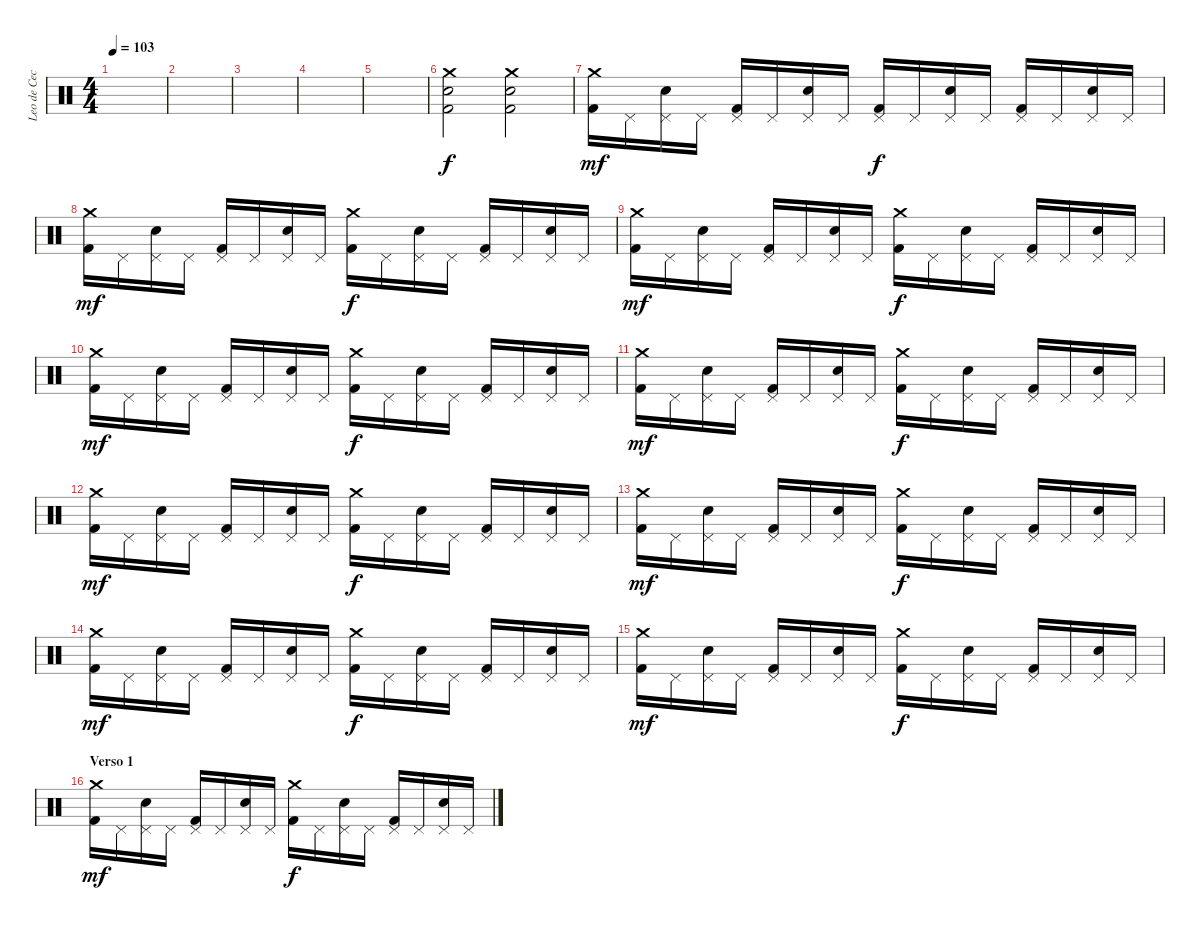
\track ("Leo de Cecco" "Leo de Cec") {instrument percussion}
\staff {score}
\articulation defaults
\ts (4 4)
\tempo 103
\clef neutral
\ks c
|
|
|
|
|
("Crash medium (hit)" "Kick (hit) 2" "Snare (hit) 2").2 ("Crash medium (hit)" "Kick (hit) 2" "Snare (hit) 2").2 |
("Crash medium (hit)" "Kick (hit) 2").16{dy mf} "Pedal Hi-Hat (hit)".16 ("Pedal Hi-Hat (hit)" "Snare (hit) 2").16 "Pedal Hi-Hat (hit)".16 ("Pedal Hi-Hat (hit)" "Kick (hit) 2").16 "Pedal Hi-Hat (hit)".16 ("Pedal Hi-Hat (hit)" "Snare (hit) 2").16 "Pedal Hi-Hat (hit)".16 ("Pedal Hi-Hat (hit)" "Kick (hit) 2").16{dy f} "Pedal Hi-Hat (hit)".16 ("Pedal Hi-Hat (hit)" "Snare (hit) 2").16 "Pedal Hi-Hat (hit)".16 ("Pedal Hi-Hat (hit)" "Kick (hit) 2").16 "Pedal Hi-Hat (hit)".16 ("Pedal Hi-Hat (hit)" "Snare (hit) 2").16 "Pedal Hi-Hat (hit)".16 |
("Crash medium (hit)" "Kick (hit) 2").16{dy mf} "Pedal Hi-Hat (hit)".16 ("Pedal Hi-Hat (hit)" "Snare (hit) 2").16 "Pedal Hi-Hat (hit)".16 ("Pedal Hi-Hat (hit)" "Kick (hit) 2").16 "Pedal Hi-Hat (hit)".16 ("Pedal Hi-Hat (hit)" "Snare (hit) 2").16 "Pedal Hi-Hat (hit)".16 ("Crash medium (hit)" "Kick (hit) 2").16{dy f} "Pedal Hi-Hat (hit)".16 ("Pedal Hi-Hat (hit)" "Snare (hit) 2").16 "Pedal Hi-Hat (hit)".16 ("Pedal Hi-Hat (hit)" "Kick (hit) 2").16 "Pedal Hi-Hat (hit)".16 ("Pedal Hi-Hat (hit)" "Snare (hit) 2").16 "Pedal Hi-Hat (hit)".16 |
("Crash medium (hit)" "Kick (hit) 2").16{dy mf} "Pedal Hi-Hat (hit)".16 ("Pedal Hi-Hat (hit)" "Snare (hit) 2").16 "Pedal Hi-Hat (hit)".16 ("Pedal Hi-Hat (hit)" "Kick (hit) 2").16 "Pedal Hi-Hat (hit)".16 ("Pedal Hi-Hat (hit)" "Snare (hit) 2").16 "Pedal Hi-Hat (hit)".16 ("Crash medium (hit)" "Kick (hit) 2").16{dy f} "Pedal Hi-Hat (hit)".16 ("Pedal Hi-Hat (hit)" "Snare (hit) 2").16 "Pedal Hi-Hat (hit)".16 ("Pedal Hi-Hat (hit)" "Kick (hit) 2").16 "Pedal Hi-Hat (hit)".16 ("Pedal Hi-Hat (hit)" "Snare (hit) 2").16 "Pedal Hi-Hat (hit)".16 |
("Crash medium (hit)" "Kick (hit) 2").16{dy mf} "Pedal Hi-Hat (hit)".16 ("Pedal Hi-Hat (hit)" "Snare (hit) 2").16 "Pedal Hi-Hat (hit)".16 ("Pedal Hi-Hat (hit)" "Kick (hit) 2").16 "Pedal Hi-Hat (hit)".16 ("Pedal Hi-Hat (hit)" "Snare (hit) 2").16 "Pedal Hi-Hat (hit)".16 ("Crash medium (hit)" "Kick (hit) 2").16{dy f} "Pedal Hi-Hat (hit)".16 ("Pedal Hi-Hat (hit)" "Snare (hit) 2").16 "Pedal Hi-Hat (hit)".16 ("Pedal Hi-Hat (hit)" "Kick (hit) 2").16 "Pedal Hi-Hat (hit)".16 ("Pedal Hi-Hat (hit)" "Snare (hit) 2").16 "Pedal Hi-Hat (hit)".16 |
("Crash medium (hit)" "Kick (hit) 2").16{dy mf} "Pedal Hi-Hat (hit)".16 ("Pedal Hi-Hat (hit)" "Snare (hit) 2").16 "Pedal Hi-Hat (hit)".16 ("Pedal Hi-Hat (hit)" "Kick (hit) 2").16 "Pedal Hi-Hat (hit)".16 ("Pedal Hi-Hat (hit)" "Snare (hit) 2").16 "Pedal Hi-Hat (hit)".16 ("Crash medium (hit)" "Kick (hit) 2").16{dy f} "Pedal Hi-Hat (hit)".16 ("Pedal Hi-Hat (hit)" "Snare (hit) 2").16 "Pedal Hi-Hat (hit)".16 ("Pedal Hi-Hat (hit)" "Kick (hit) 2").16 "Pedal Hi-Hat (hit)".16 ("Pedal Hi-Hat (hit)" "Snare (hit) 2").16 "Pedal Hi-Hat (hit)".16 |
("Crash medium (hit)" "Kick (hit) 2").16{dy mf} "Pedal Hi-Hat (hit)".16 ("Pedal Hi-Hat (hit)" "Snare (hit) 2").16 "Pedal Hi-Hat (hit)".16 ("Pedal Hi-Hat (hit)" "Kick (hit) 2").16 "Pedal Hi-Hat (hit)".16 ("Pedal Hi-Hat (hit)" "Snare (hit) 2").16 "Pedal Hi-Hat (hit)".16 ("Crash medium (hit)" "Kick (hit) 2").16{dy f} "Pedal Hi-Hat (hit)".16 ("Pedal Hi-Hat (hit)" "Snare (hit) 2").16 "Pedal Hi-Hat (hit)".16 ("Pedal Hi-Hat (hit)" "Kick (hit) 2").16 "Pedal Hi-Hat (hit)".16 ("Pedal Hi-Hat (hit)" "Snare (hit) 2").16 "Pedal Hi-Hat (hit)".16 |
("Crash medium (hit)" "Kick (hit) 2").16{dy mf} "Pedal Hi-Hat (hit)".16 ("Pedal Hi-Hat (hit)" "Snare (hit) 2").16 "Pedal Hi-Hat (hit)".16 ("Pedal Hi-Hat (hit)" "Kick (hit) 2").16 "Pedal Hi-Hat (hit)".16 ("Pedal Hi-Hat (hit)" "Snare (hit) 2").16 "Pedal Hi-Hat (hit)".16 ("Crash medium (hit)" "Kick (hit) 2").16{dy f} "Pedal Hi-Hat (hit)".16 ("Pedal Hi-Hat (hit)" "Snare (hit) 2").16 "Pedal Hi-Hat (hit)".16 ("Pedal Hi-Hat (hit)" "Kick (hit) 2").16 "Pedal Hi-Hat (hit)".16 ("Pedal Hi-Hat (hit)" "Snare (hit) 2").16 "Pedal Hi-Hat (hit)".16 |
("Crash medium (hit)" "Kick (hit) 2").16{dy mf} "Pedal Hi-Hat (hit)".16 ("Pedal Hi-Hat (hit)" "Snare (hit) 2").16 "Pedal Hi-Hat (hit)".16 ("Pedal Hi-Hat (hit)" "Kick (hit) 2").16 "Pedal Hi-Hat (hit)".16 ("Pedal Hi-Hat (hit)" "Snare (hit) 2").16 "Pedal Hi-Hat (hit)".16 ("Crash medium (hit)" "Kick (hit) 2").16{dy f} "Pedal Hi-Hat (hit)".16 ("Pedal Hi-Hat (hit)" "Snare (hit) 2").16 "Pedal Hi-Hat (hit)".16 ("Pedal Hi-Hat (hit)" "Kick (hit) 2").16 "Pedal Hi-Hat (hit)".16 ("Pedal Hi-Hat (hit)" "Snare (hit) 2").16 "Pedal Hi-Hat (hit)".16 |
("Crash medium (hit)" "Kick (hit) 2").16{dy mf} "Pedal Hi-Hat (hit)".16 ("Pedal Hi-Hat (hit)" "Snare (hit) 2").16 "Pedal Hi-Hat (hit)".16 ("Pedal Hi-Hat (hit)" "Kick (hit) 2").16 "Pedal Hi-Hat (hit)".16 ("Pedal Hi-Hat (hit)" "Snare (hit) 2").16 "Pedal Hi-Hat (hit)".16 ("Crash medium (hit)" "Kick (hit) 2").16{dy f} "Pedal Hi-Hat (hit)".16 ("Pedal Hi-Hat (hit)" "Snare (hit) 2").16 "Pedal Hi-Hat (hit)".16 ("Pedal Hi-Hat (hit)" "Kick (hit) 2").16 "Pedal Hi-Hat (hit)".16 ("Pedal Hi-Hat (hit)" "Snare (hit) 2").16 "Pedal Hi-Hat (hit)".16 |
\section ("" "Verso 1")
("Crash medium (hit)" "Kick (hit) 2").16{dy mf} "Pedal Hi-Hat (hit)".16 ("Pedal Hi-Hat (hit)" "Snare (hit) 2").16 "Pedal Hi-Hat (hit)".16 ("Pedal Hi-Hat (hit)" "Kick (hit) 2").16 "Pedal Hi-Hat (hit)".16 ("Pedal Hi-Hat (hit)" "Snare (hit) 2").16 "Pedal Hi-Hat (hit)".16 ("Crash medium (hit)" "Kick (hit) 2").16{dy f} "Pedal Hi-Hat (hit)".16 ("Pedal Hi-Hat (hit)" "Snare (hit) 2").16 "Pedal Hi-Hat (hit)".16 ("Pedal Hi-Hat (hit)" "Kick (hit) 2").16 "Pedal Hi-Hat (hit)".16 ("Pedal Hi-Hat (hit)" "Snare (hit) 2").16 "Pedal Hi-Hat (hit)".16
